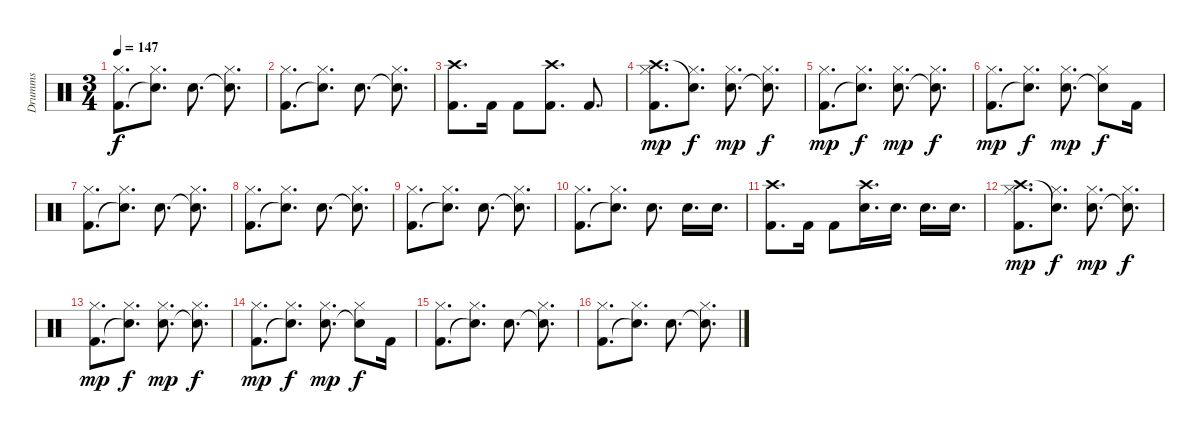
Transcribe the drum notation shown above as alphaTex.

\track ("Drumms" "Drumms") {instrument percussion}
\staff {score}
\articulation defaults
\ts (3 4)
\tempo 147
\clef neutral
\ks c
("Kick (hit) 2" "Hi-Hat (closed)").8{d dy f} ("Snare (hit)"{t} "Hi-Hat (closed)").8{d} "Electric Snare (hit)".8{d} ("Snare (hit)"{t} "Hi-Hat (closed)").8{d} |
("Kick (hit) 2" "Hi-Hat (closed)").8{d} ("Snare (hit)"{t} "Hi-Hat (closed)").8{d} "Electric Snare (hit)".8{d} ("Snare (hit)"{t} "Hi-Hat (closed)").8{d} |
("Crash high (hit)" "Kick (hit) 2").8{d} "Kick (hit) 2".16 "Kick (hit) 2".8 ("Crash high (hit)" "Kick (hit) 2").8{d} "Kick (hit) 2".8{d} |
("Crash high (hit)" "Kick (hit) 2" "Hi-Hat (closed)").8{d dy mp} ("Snare (hit)"{t} "Hi-Hat (closed)").8{d dy f} ("Electric Snare (hit)" "Hi-Hat (closed)").8{d dy mp} ("Snare (hit)"{t} "Hi-Hat (closed)").8{d dy f} |
("Kick (hit) 2" "Hi-Hat (closed)").8{d dy mp} ("Snare (hit)"{t} "Hi-Hat (closed)").8{d dy f} ("Electric Snare (hit)" "Hi-Hat (closed)").8{d dy mp} ("Snare (hit)"{t} "Hi-Hat (closed)").8{d dy f} |
("Kick (hit) 2" "Hi-Hat (closed)").8{d dy mp} ("Snare (hit)"{t} "Hi-Hat (closed)").8{d dy f} ("Electric Snare (hit)" "Hi-Hat (closed)").8{d dy mp} ("Snare (hit)"{t} "Hi-Hat (closed)").8{dy f} "Kick (hit) 2".16 |
("Kick (hit) 2" "Hi-Hat (closed)").8{d} ("Snare (hit)"{t} "Hi-Hat (closed)").8{d} "Electric Snare (hit)".8{d} ("Snare (hit)"{t} "Hi-Hat (closed)").8{d} |
("Kick (hit) 2" "Hi-Hat (closed)").8{d} ("Snare (hit)"{t} "Hi-Hat (closed)").8{d} "Electric Snare (hit)".8{d} ("Snare (hit)"{t} "Hi-Hat (closed)").8{d} |
("Kick (hit) 2" "Hi-Hat (closed)").8{d} ("Snare (hit)"{t} "Hi-Hat (closed)").8{d} "Electric Snare (hit)".8{d} ("Snare (hit)"{t} "Hi-Hat (closed)").8{d} |
("Kick (hit) 2" "Hi-Hat (closed)").8{d} ("Snare (hit)"{t} "Hi-Hat (closed)").8{d} "Electric Snare (hit)".8{d} "Electric Snare (hit)".16{d} "Electric Snare (hit)".16{d} |
("Crash high (hit)" "Kick (hit) 2").8{d} "Kick (hit) 2".16 "Kick (hit) 2".8 ("Crash high (hit)" "Electric Snare (hit)").16{d} "Electric Snare (hit)".16{d} "Electric Snare (hit)".16{d} "Electric Snare (hit)".16{d} |
("Crash high (hit)" "Kick (hit) 2" "Hi-Hat (closed)").8{d dy mp} ("Snare (hit)"{t} "Hi-Hat (closed)").8{d dy f} ("Electric Snare (hit)" "Hi-Hat (closed)").8{d dy mp} ("Snare (hit)"{t} "Hi-Hat (closed)").8{d dy f} |
("Kick (hit) 2" "Hi-Hat (closed)").8{d dy mp} ("Snare (hit)"{t} "Hi-Hat (closed)").8{d dy f} ("Electric Snare (hit)" "Hi-Hat (closed)").8{d dy mp} ("Snare (hit)"{t} "Hi-Hat (closed)").8{d dy f} |
("Kick (hit) 2" "Hi-Hat (closed)").8{d dy mp} ("Snare (hit)"{t} "Hi-Hat (closed)").8{d dy f} ("Electric Snare (hit)" "Hi-Hat (closed)").8{d dy mp} ("Snare (hit)"{t} "Hi-Hat (closed)").8{dy f} "Kick (hit) 2".16 |
("Kick (hit) 2" "Hi-Hat (closed)").8{d} ("Snare (hit)"{t} "Hi-Hat (closed)").8{d} "Electric Snare (hit)".8{d} ("Snare (hit)"{t} "Hi-Hat (closed)").8{d} |
("Kick (hit) 2" "Hi-Hat (closed)").8{d} ("Snare (hit)"{t} "Hi-Hat (closed)").8{d} "Electric Snare (hit)".8{d} ("Snare (hit)"{t} "Hi-Hat (closed)").8{d}
